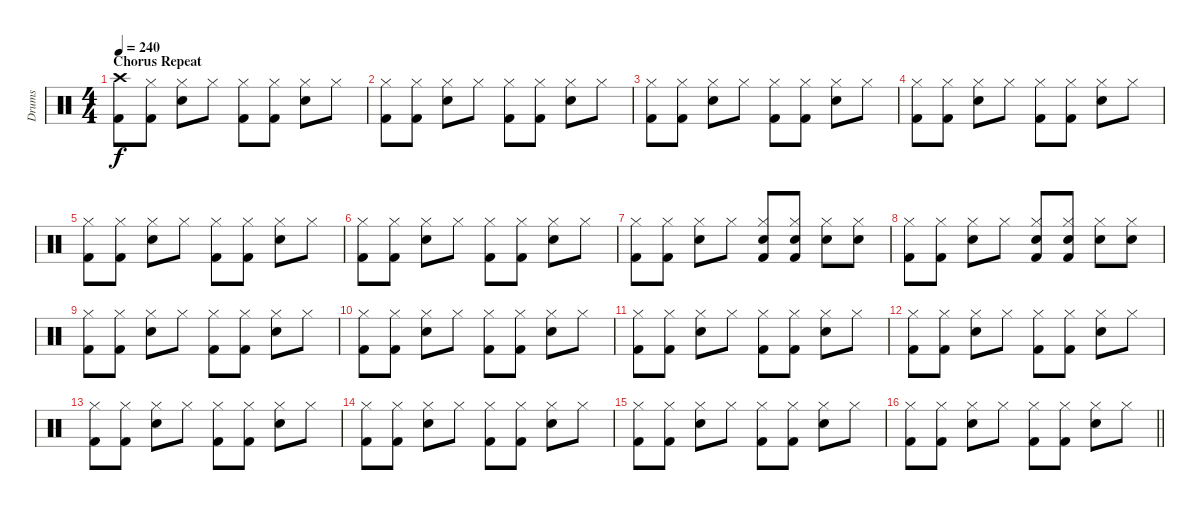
\track ("Drums" "Drums") {instrument percussion}
\staff {score}
\articulation defaults
\ts (4 4)
\section ("" "Chorus Repeat")
\tempo 240
\clef neutral
\ks c
("Crash high (hit)" "Kick (hit) 2").8{dy f} ("Hi-Hat (closed)" "Kick (hit) 2").8 ("Hi-Hat (closed)" "Snare (hit) 2").8 "Hi-Hat (closed)".8 ("Hi-Hat (closed)" "Kick (hit) 2").8 ("Hi-Hat (closed)" "Kick (hit) 2").8 ("Hi-Hat (closed)" "Snare (hit) 2").8 "Hi-Hat (closed)".8 |
("Hi-Hat (closed)" "Kick (hit) 2").8 ("Hi-Hat (closed)" "Kick (hit) 2").8 ("Hi-Hat (closed)" "Snare (hit) 2").8 "Hi-Hat (closed)".8 ("Hi-Hat (closed)" "Kick (hit) 2").8 ("Hi-Hat (closed)" "Kick (hit) 2").8 ("Hi-Hat (closed)" "Snare (hit) 2").8 "Hi-Hat (closed)".8 |
("Hi-Hat (closed)" "Kick (hit) 2").8 ("Hi-Hat (closed)" "Kick (hit) 2").8 ("Hi-Hat (closed)" "Snare (hit) 2").8 "Hi-Hat (closed)".8 ("Hi-Hat (closed)" "Kick (hit) 2").8 ("Hi-Hat (closed)" "Kick (hit) 2").8 ("Hi-Hat (closed)" "Snare (hit) 2").8 "Hi-Hat (closed)".8 |
("Hi-Hat (closed)" "Kick (hit) 2").8 ("Hi-Hat (closed)" "Kick (hit) 2").8 ("Hi-Hat (closed)" "Snare (hit) 2").8 "Hi-Hat (closed)".8 ("Hi-Hat (closed)" "Kick (hit) 2").8 ("Hi-Hat (closed)" "Kick (hit) 2").8 ("Hi-Hat (closed)" "Snare (hit) 2").8 "Hi-Hat (closed)".8 |
("Hi-Hat (closed)" "Kick (hit) 2").8 ("Hi-Hat (closed)" "Kick (hit) 2").8 ("Hi-Hat (closed)" "Snare (hit) 2").8 "Hi-Hat (closed)".8 ("Hi-Hat (closed)" "Kick (hit) 2").8 ("Hi-Hat (closed)" "Kick (hit) 2").8 ("Hi-Hat (closed)" "Snare (hit) 2").8 "Hi-Hat (closed)".8 |
("Hi-Hat (closed)" "Kick (hit) 2").8 ("Hi-Hat (closed)" "Kick (hit) 2").8 ("Hi-Hat (closed)" "Snare (hit) 2").8 "Hi-Hat (closed)".8 ("Hi-Hat (closed)" "Kick (hit) 2").8 ("Hi-Hat (closed)" "Kick (hit) 2").8 ("Hi-Hat (closed)" "Snare (hit) 2").8 "Hi-Hat (closed)".8 |
("Hi-Hat (closed)" "Kick (hit) 2").8 ("Hi-Hat (closed)" "Kick (hit) 2").8 ("Hi-Hat (closed)" "Snare (hit) 2").8 "Hi-Hat (closed)".8 ("Hi-Hat (closed)" "Snare (hit) 2" "Kick (hit) 2").8 ("Hi-Hat (closed)" "Snare (hit) 2" "Kick (hit) 2").8 ("Hi-Hat (closed)" "Snare (hit) 2").8 ("Hi-Hat (closed)" "Snare (hit) 2").8 |
("Hi-Hat (closed)" "Kick (hit) 2").8 ("Hi-Hat (closed)" "Kick (hit) 2").8 ("Hi-Hat (closed)" "Snare (hit) 2").8 "Hi-Hat (closed)".8 ("Hi-Hat (closed)" "Snare (hit) 2" "Kick (hit) 2").8 ("Hi-Hat (closed)" "Snare (hit) 2" "Kick (hit) 2").8 ("Hi-Hat (closed)" "Snare (hit) 2").8 ("Hi-Hat (closed)" "Snare (hit) 2").8 |
("Hi-Hat (closed)" "Kick (hit) 2").8 ("Hi-Hat (closed)" "Kick (hit) 2").8 ("Hi-Hat (closed)" "Snare (hit) 2").8 "Hi-Hat (closed)".8 ("Hi-Hat (closed)" "Kick (hit) 2").8 ("Hi-Hat (closed)" "Kick (hit) 2").8 ("Hi-Hat (closed)" "Snare (hit) 2").8 "Hi-Hat (closed)".8 |
("Hi-Hat (closed)" "Kick (hit) 2").8 ("Hi-Hat (closed)" "Kick (hit) 2").8 ("Hi-Hat (closed)" "Snare (hit) 2").8 "Hi-Hat (closed)".8 ("Hi-Hat (closed)" "Kick (hit) 2").8 ("Hi-Hat (closed)" "Kick (hit) 2").8 ("Hi-Hat (closed)" "Snare (hit) 2").8 "Hi-Hat (closed)".8 |
("Hi-Hat (closed)" "Kick (hit) 2").8 ("Hi-Hat (closed)" "Kick (hit) 2").8 ("Hi-Hat (closed)" "Snare (hit) 2").8 "Hi-Hat (closed)".8 ("Hi-Hat (closed)" "Kick (hit) 2").8 ("Hi-Hat (closed)" "Kick (hit) 2").8 ("Hi-Hat (closed)" "Snare (hit) 2").8 "Hi-Hat (closed)".8 |
("Hi-Hat (closed)" "Kick (hit) 2").8 ("Hi-Hat (closed)" "Kick (hit) 2").8 ("Hi-Hat (closed)" "Snare (hit) 2").8 "Hi-Hat (closed)".8 ("Hi-Hat (closed)" "Kick (hit) 2").8 ("Hi-Hat (closed)" "Kick (hit) 2").8 ("Hi-Hat (closed)" "Snare (hit) 2").8 "Hi-Hat (closed)".8 |
("Hi-Hat (closed)" "Kick (hit) 2").8 ("Hi-Hat (closed)" "Kick (hit) 2").8 ("Hi-Hat (closed)" "Snare (hit) 2").8 "Hi-Hat (closed)".8 ("Hi-Hat (closed)" "Kick (hit) 2").8 ("Hi-Hat (closed)" "Kick (hit) 2").8 ("Hi-Hat (closed)" "Snare (hit) 2").8 "Hi-Hat (closed)".8 |
("Hi-Hat (closed)" "Kick (hit) 2").8 ("Hi-Hat (closed)" "Kick (hit) 2").8 ("Hi-Hat (closed)" "Snare (hit) 2").8 "Hi-Hat (closed)".8 ("Hi-Hat (closed)" "Kick (hit) 2").8 ("Hi-Hat (closed)" "Kick (hit) 2").8 ("Hi-Hat (closed)" "Snare (hit) 2").8 "Hi-Hat (closed)".8 |
("Hi-Hat (closed)" "Kick (hit) 2").8 ("Hi-Hat (closed)" "Kick (hit) 2").8 ("Hi-Hat (closed)" "Snare (hit) 2").8 "Hi-Hat (closed)".8 ("Hi-Hat (closed)" "Kick (hit) 2").8 ("Hi-Hat (closed)" "Kick (hit) 2").8 ("Hi-Hat (closed)" "Snare (hit) 2").8 "Hi-Hat (closed)".8 |
\barLineRight lightlight
("Hi-Hat (closed)" "Kick (hit) 2").8 ("Hi-Hat (closed)" "Kick (hit) 2").8 ("Hi-Hat (closed)" "Snare (hit) 2").8 "Hi-Hat (closed)".8 ("Hi-Hat (closed)" "Kick (hit) 2").8 ("Hi-Hat (closed)" "Kick (hit) 2").8 ("Hi-Hat (closed)" "Snare (hit) 2").8 "Hi-Hat (closed)".8
